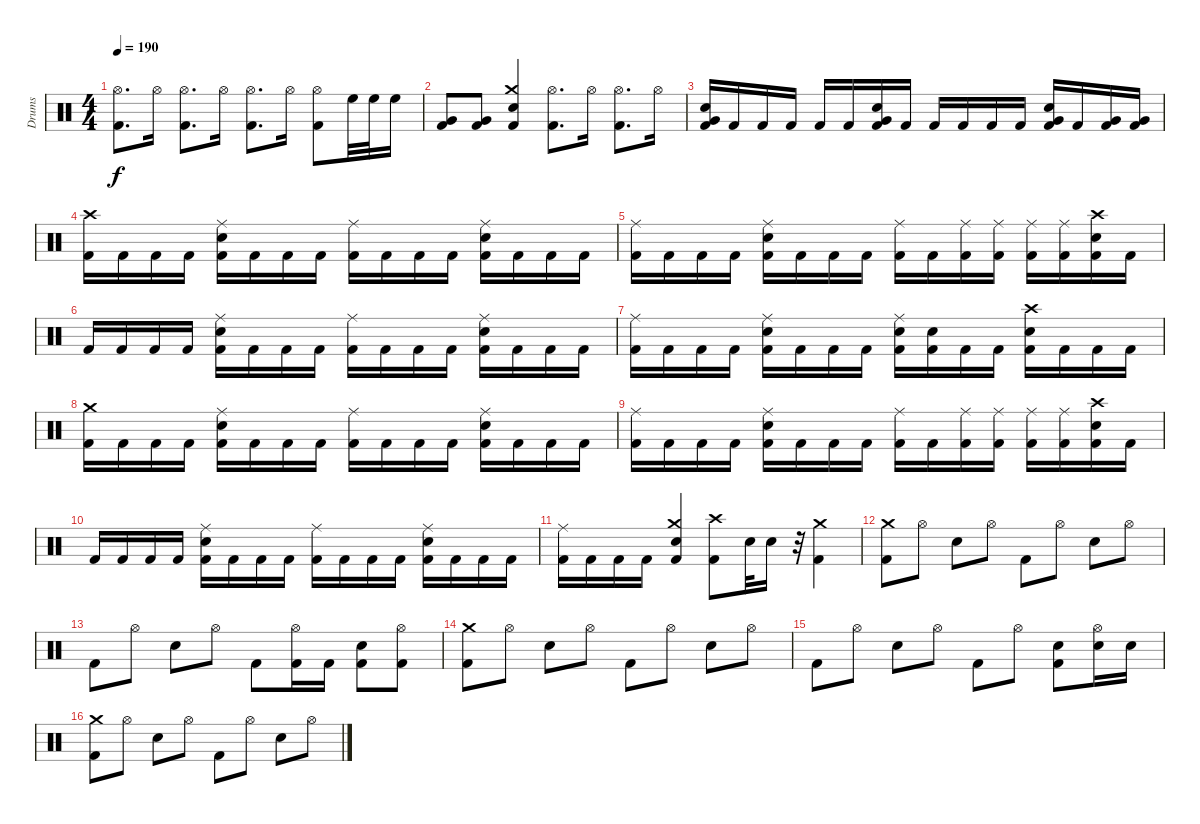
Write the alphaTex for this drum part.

\track ("Drums" "Drums") {instrument percussion}
\staff {score}
\articulation defaults
\ts (4 4)
\tempo 190
\clef neutral
\ks c
("Hi-Hat (open)" "Kick (hit) 2").8{d dy f} "Hi-Hat (open)".16 ("Hi-Hat (open)" "Kick (hit) 2").8{d} "Hi-Hat (open)".16 ("Hi-Hat (open)" "Kick (hit) 2").8{d} "Hi-Hat (open)".16 ("Hi-Hat (open)" "Kick (hit) 2").8 "High Floor Tom (hit)".32 "High Floor Tom (hit)".32 "High Floor Tom (hit)".16 |
("Very Low Tom (hit)" "Kick (hit) 2").8 ("Very Low Tom (hit)" "Kick (hit) 2").8 ("Crash medium (hit)" "Electric Snare (hit)" "Kick (hit) 2").4 ("Hi-Hat (open)" "Kick (hit) 2").8{d} "Hi-Hat (open)".16 ("Hi-Hat (open)" "Kick (hit) 2").8{d} "Hi-Hat (open)".16 |
("Electric Snare (hit)" "Very Low Tom (hit)" "Kick (hit) 2").16 "Kick (hit) 2".16 "Kick (hit) 2".16 "Kick (hit) 2".16 "Kick (hit) 2".16 "Kick (hit) 2".16 ("Electric Snare (hit)" "Very Low Tom (hit)" "Kick (hit) 2").16 "Kick (hit) 2".16 "Kick (hit) 2".16 "Kick (hit) 2".16 "Kick (hit) 2".16 "Kick (hit) 2".16 ("Electric Snare (hit)" "Very Low Tom (hit)" "Kick (hit) 2").16 "Kick (hit) 2".16 ("Very Low Tom (hit)" "Kick (hit) 2").16 ("Very Low Tom (hit)" "Kick (hit) 2").16 |
("Crash high (hit)" "Kick (hit) 2").16 "Kick (hit) 2".16 "Kick (hit) 2".16 "Kick (hit) 2".16 ("Ride (middle)" "Electric Snare (hit)" "Kick (hit) 2").16 "Kick (hit) 2".16 "Kick (hit) 2".16 "Kick (hit) 2".16 ("Ride (middle)" "Kick (hit) 2").16 "Kick (hit) 2".16 "Kick (hit) 2".16 "Kick (hit) 2".16 ("Ride (middle)" "Electric Snare (hit)" "Kick (hit) 2").16 "Kick (hit) 2".16 "Kick (hit) 2".16 "Kick (hit) 2".16 |
("Ride (middle)" "Kick (hit) 2").16 "Kick (hit) 2".16 "Kick (hit) 2".16 "Kick (hit) 2".16 ("Ride (middle)" "Electric Snare (hit)" "Kick (hit) 2").16 "Kick (hit) 2".16 "Kick (hit) 2".16 "Kick (hit) 2".16 ("Ride (middle)" "Kick (hit) 2").16 "Kick (hit) 2".16 ("Ride (middle)" "Kick (hit) 2").16 ("Ride (middle)" "Kick (hit) 2").16 ("Ride (middle)" "Kick (hit) 2").16 ("Ride (middle)" "Kick (hit) 2").16 ("Crash high (hit)" "Electric Snare (hit)" "Kick (hit) 2").16 "Kick (hit) 2".16 |
"Kick (hit) 2".16 "Kick (hit) 2".16 "Kick (hit) 2".16 "Kick (hit) 2".16 ("Ride (middle)" "Electric Snare (hit)" "Kick (hit) 2").16 "Kick (hit) 2".16 "Kick (hit) 2".16 "Kick (hit) 2".16 ("Ride (middle)" "Kick (hit) 2").16 "Kick (hit) 2".16 "Kick (hit) 2".16 "Kick (hit) 2".16 ("Ride (middle)" "Electric Snare (hit)" "Kick (hit) 2").16 "Kick (hit) 2".16 "Kick (hit) 2".16 "Kick (hit) 2".16 |
("Ride (middle)" "Kick (hit) 2").16 "Kick (hit) 2".16 "Kick (hit) 2".16 "Kick (hit) 2".16 ("Ride (middle)" "Electric Snare (hit)" "Kick (hit) 2").16 "Kick (hit) 2".16 "Kick (hit) 2".16 "Kick (hit) 2".16 ("Ride (middle)" "Electric Snare (hit)" "Kick (hit) 2").16 ("Electric Snare (hit)" "Kick (hit) 2").16 "Kick (hit) 2".16 "Kick (hit) 2".16 ("Crash high (hit)" "Electric Snare (hit)" "Kick (hit) 2").16 "Kick (hit) 2".16 "Kick (hit) 2".16 "Kick (hit) 2".16 |
("Crash medium (hit)" "Kick (hit) 2").16 "Kick (hit) 2".16 "Kick (hit) 2".16 "Kick (hit) 2".16 ("Ride (middle)" "Electric Snare (hit)" "Kick (hit) 2").16 "Kick (hit) 2".16 "Kick (hit) 2".16 "Kick (hit) 2".16 ("Ride (middle)" "Kick (hit) 2").16 "Kick (hit) 2".16 "Kick (hit) 2".16 "Kick (hit) 2".16 ("Ride (middle)" "Electric Snare (hit)" "Kick (hit) 2").16 "Kick (hit) 2".16 "Kick (hit) 2".16 "Kick (hit) 2".16 |
("Ride (middle)" "Kick (hit) 2").16 "Kick (hit) 2".16 "Kick (hit) 2".16 "Kick (hit) 2".16 ("Ride (middle)" "Electric Snare (hit)" "Kick (hit) 2").16 "Kick (hit) 2".16 "Kick (hit) 2".16 "Kick (hit) 2".16 ("Ride (middle)" "Kick (hit) 2").16 "Kick (hit) 2".16 ("Ride (middle)" "Kick (hit) 2").16 ("Ride (middle)" "Kick (hit) 2").16 ("Ride (middle)" "Kick (hit) 2").16 ("Ride (middle)" "Kick (hit) 2").16 ("Crash high (hit)" "Electric Snare (hit)" "Kick (hit) 2").16 "Kick (hit) 2".16 |
"Kick (hit) 2".16 "Kick (hit) 2".16 "Kick (hit) 2".16 "Kick (hit) 2".16 ("Ride (middle)" "Electric Snare (hit)" "Kick (hit) 2").16 "Kick (hit) 2".16 "Kick (hit) 2".16 "Kick (hit) 2".16 ("Ride (middle)" "Kick (hit) 2").16 "Kick (hit) 2".16 "Kick (hit) 2".16 "Kick (hit) 2".16 ("Ride (middle)" "Electric Snare (hit)" "Kick (hit) 2").16 "Kick (hit) 2".16 "Kick (hit) 2".16 "Kick (hit) 2".16 |
("Ride (middle)" "Kick (hit) 2").16 "Kick (hit) 2".16 "Kick (hit) 2".16 "Kick (hit) 2".16 ("Crash medium (hit)" "Electric Snare (hit)" "Kick (hit) 2").4 ("Crash high (hit)" "Kick (hit) 2").8 "Electric Snare (hit)".32 "Electric Snare (hit)".16 r.32 ("Crash medium (hit)" "Kick (hit) 2").4 |
("Crash medium (hit)" "Kick (hit) 2").8 "Hi-Hat (open)".8 "Electric Snare (hit)".8 "Hi-Hat (open)".8 "Kick (hit) 2".8 "Hi-Hat (open)".8 "Electric Snare (hit)".8 "Hi-Hat (open)".8 |
"Kick (hit) 2".8 "Hi-Hat (open)".8 "Electric Snare (hit)".8 "Hi-Hat (open)".8 "Kick (hit) 2".8 ("Hi-Hat (open)" "Kick (hit) 2").16 "Kick (hit) 2".16 ("Electric Snare (hit)" "Kick (hit) 2").8 ("Hi-Hat (open)" "Kick (hit) 2").8 |
("Crash medium (hit)" "Kick (hit) 2").8 "Hi-Hat (open)".8 "Electric Snare (hit)".8 "Hi-Hat (open)".8 "Kick (hit) 2".8 "Hi-Hat (open)".8 "Electric Snare (hit)".8 "Hi-Hat (open)".8 |
"Kick (hit) 2".8 "Hi-Hat (open)".8 "Electric Snare (hit)".8 "Hi-Hat (open)".8 "Kick (hit) 2".8 "Hi-Hat (open)".8 ("Electric Snare (hit)" "Kick (hit) 2").8 ("Hi-Hat (open)" "Electric Snare (hit)").16 "Electric Snare (hit)".16 |
("Crash medium (hit)" "Kick (hit) 2").8 "Hi-Hat (open)".8 "Electric Snare (hit)".8 "Hi-Hat (open)".8 "Kick (hit) 2".8 "Hi-Hat (open)".8 "Electric Snare (hit)".8 "Hi-Hat (open)".8
